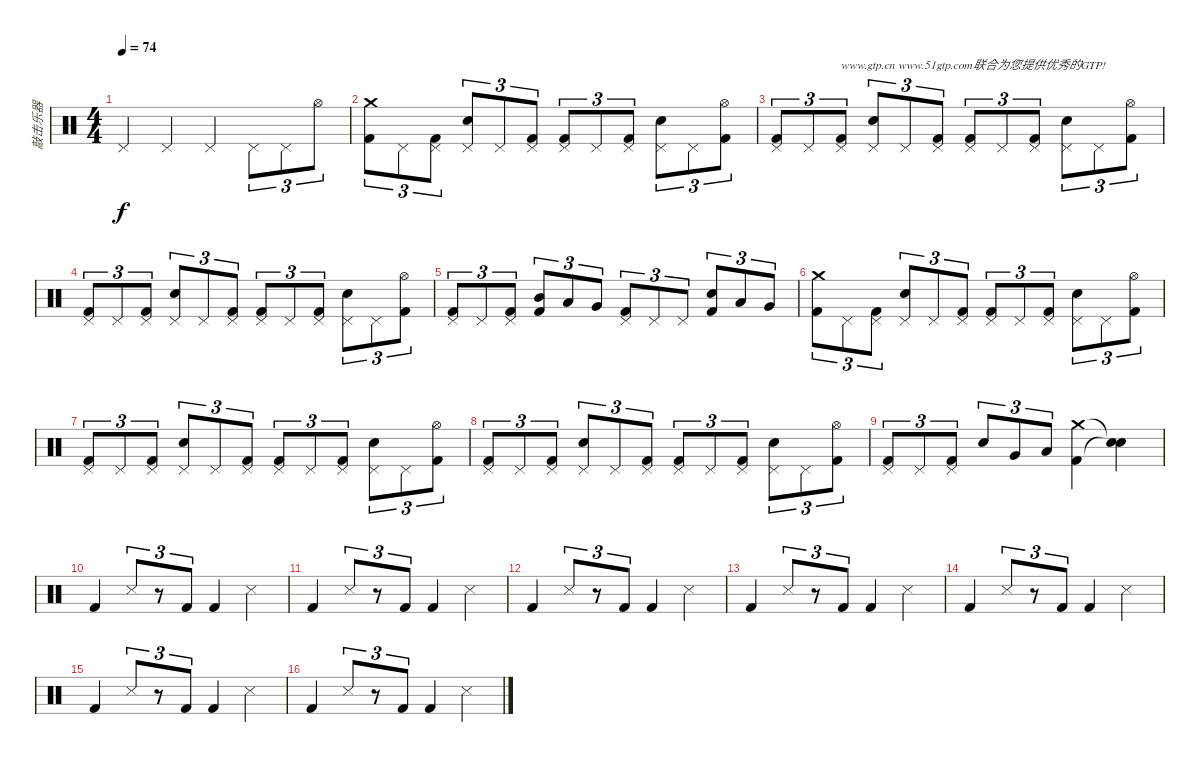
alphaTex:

\track ("敲击乐器" "敲击乐器") {instrument percussion}
\staff {score}
\articulation defaults
\ts (4 4)
\tempo 74
\clef neutral
\ks c "Pedal Hi-Hat (hit)".4{dy f} "Pedal Hi-Hat (hit)".4 "Pedal Hi-Hat (hit)".4 "Pedal Hi-Hat (hit)".8{tu (3 2)} "Pedal Hi-Hat (hit)".8{tu (3 2)} "Hi-Hat (open)".8{tu (3 2)}
|
("Crash medium (hit)" "Kick (hit) 2").8{tu (3 2)} "Pedal Hi-Hat (hit)".8{tu (3 2)} ("Pedal Hi-Hat (hit)" "Kick (hit) 2").8{tu (3 2)} ("Electric Snare (hit)" "Pedal Hi-Hat (hit)").8{tu (3 2)} "Pedal Hi-Hat (hit)".8{tu (3 2)} ("Pedal Hi-Hat (hit)" "Kick (hit) 2").8{tu (3 2)} ("Pedal Hi-Hat (hit)" "Kick (hit) 2").8{tu (3 2)} "Pedal Hi-Hat (hit)".8{tu (3 2)} ("Pedal Hi-Hat (hit)" "Kick (hit) 2").8{tu (3 2)} ("Electric Snare (hit)" "Pedal Hi-Hat (hit)").8{tu (3 2)} "Pedal Hi-Hat (hit)".8{tu (3 2)} ("Hi-Hat (open)" "Kick (hit) 2").8{tu (3 2)} |
("Pedal Hi-Hat (hit)" "Kick (hit) 2").8{tu (3 2)} "Pedal Hi-Hat (hit)".8{tu (3 2)} ("Pedal Hi-Hat (hit)" "Kick (hit) 2").8{tu (3 2) txt "www.gtp.cn www.51gtp.com联合为您提供优秀的GTP!"} ("Electric Snare (hit)" "Pedal Hi-Hat (hit)").8{tu (3 2)} "Pedal Hi-Hat (hit)".8{tu (3 2)} ("Pedal Hi-Hat (hit)" "Kick (hit) 2").8{tu (3 2)} ("Pedal Hi-Hat (hit)" "Kick (hit) 2").8{tu (3 2)} "Pedal Hi-Hat (hit)".8{tu (3 2)} ("Pedal Hi-Hat (hit)" "Kick (hit) 2").8{tu (3 2)} ("Electric Snare (hit)" "Pedal Hi-Hat (hit)").8{tu (3 2)} "Pedal Hi-Hat (hit)".8{tu (3 2)} ("Hi-Hat (open)" "Kick (hit) 2").8{tu (3 2)} |
("Pedal Hi-Hat (hit)" "Kick (hit) 2").8{tu (3 2)} "Pedal Hi-Hat (hit)".8{tu (3 2)} ("Pedal Hi-Hat (hit)" "Kick (hit) 2").8{tu (3 2)} ("Electric Snare (hit)" "Pedal Hi-Hat (hit)").8{tu (3 2)} "Pedal Hi-Hat (hit)".8{tu (3 2)} ("Pedal Hi-Hat (hit)" "Kick (hit) 2").8{tu (3 2)} ("Pedal Hi-Hat (hit)" "Kick (hit) 2").8{tu (3 2)} "Pedal Hi-Hat (hit)".8{tu (3 2)} ("Pedal Hi-Hat (hit)" "Kick (hit) 2").8{tu (3 2)} ("Electric Snare (hit)" "Pedal Hi-Hat (hit)").8{tu (3 2)} "Pedal Hi-Hat (hit)".8{tu (3 2)} ("Hi-Hat (open)" "Kick (hit) 2").8{tu (3 2)} |
("Pedal Hi-Hat (hit)" "Kick (hit) 2").8{tu (3 2)} "Pedal Hi-Hat (hit)".8{tu (3 2)} ("Pedal Hi-Hat (hit)" "Kick (hit) 2").8{tu (3 2)} ("Mid Tom (hit)" "Kick (hit) 2").8{tu (3 2)} "Low Tom (hit)".8{tu (3 2)} "Very Low Tom (hit)".8{tu (3 2)} ("Pedal Hi-Hat (hit)" "Kick (hit) 2").8{tu (3 2)} "Pedal Hi-Hat (hit)".8{tu (3 2)} "Pedal Hi-Hat (hit)".8{tu (3 2)} ("Electric Snare (hit)" "Kick (hit) 2").8{tu (3 2)} "Low Tom (hit)".8{tu (3 2)} "Very Low Tom (hit)".8{tu (3 2)} |
("Crash medium (hit)" "Kick (hit) 2").8{tu (3 2)} "Pedal Hi-Hat (hit)".8{tu (3 2)} ("Pedal Hi-Hat (hit)" "Kick (hit) 2").8{tu (3 2)} ("Electric Snare (hit)" "Pedal Hi-Hat (hit)").8{tu (3 2)} "Pedal Hi-Hat (hit)".8{tu (3 2)} ("Pedal Hi-Hat (hit)" "Kick (hit) 2").8{tu (3 2)} ("Pedal Hi-Hat (hit)" "Kick (hit) 2").8{tu (3 2)} "Pedal Hi-Hat (hit)".8{tu (3 2)} ("Pedal Hi-Hat (hit)" "Kick (hit) 2").8{tu (3 2)} ("Electric Snare (hit)" "Pedal Hi-Hat (hit)").8{tu (3 2)} "Pedal Hi-Hat (hit)".8{tu (3 2)} ("Hi-Hat (open)" "Kick (hit) 2").8{tu (3 2)} |
("Pedal Hi-Hat (hit)" "Kick (hit) 2").8{tu (3 2)} "Pedal Hi-Hat (hit)".8{tu (3 2)} ("Pedal Hi-Hat (hit)" "Kick (hit) 2").8{tu (3 2)} ("Electric Snare (hit)" "Pedal Hi-Hat (hit)").8{tu (3 2)} "Pedal Hi-Hat (hit)".8{tu (3 2)} ("Pedal Hi-Hat (hit)" "Kick (hit) 2").8{tu (3 2)} ("Pedal Hi-Hat (hit)" "Kick (hit) 2").8{tu (3 2)} "Pedal Hi-Hat (hit)".8{tu (3 2)} ("Pedal Hi-Hat (hit)" "Kick (hit) 2").8{tu (3 2)} ("Electric Snare (hit)" "Pedal Hi-Hat (hit)").8{tu (3 2)} "Pedal Hi-Hat (hit)".8{tu (3 2)} ("Hi-Hat (open)" "Kick (hit) 2").8{tu (3 2)} |
("Pedal Hi-Hat (hit)" "Kick (hit) 2").8{tu (3 2)} "Pedal Hi-Hat (hit)".8{tu (3 2)} ("Pedal Hi-Hat (hit)" "Kick (hit) 2").8{tu (3 2)} ("Electric Snare (hit)" "Pedal Hi-Hat (hit)").8{tu (3 2)} "Pedal Hi-Hat (hit)".8{tu (3 2)} ("Pedal Hi-Hat (hit)" "Kick (hit) 2").8{tu (3 2)} ("Pedal Hi-Hat (hit)" "Kick (hit) 2").8{tu (3 2)} "Pedal Hi-Hat (hit)".8{tu (3 2)} ("Pedal Hi-Hat (hit)" "Kick (hit) 2").8{tu (3 2)} ("Electric Snare (hit)" "Pedal Hi-Hat (hit)").8{tu (3 2)} "Pedal Hi-Hat (hit)".8{tu (3 2)} ("Hi-Hat (open)" "Kick (hit) 2").8{tu (3 2)} |
("Pedal Hi-Hat (hit)" "Kick (hit) 2").8{tu (3 2)} "Pedal Hi-Hat (hit)".8{tu (3 2)} ("Pedal Hi-Hat (hit)" "Kick (hit) 2").8{tu (3 2)} "Electric Snare (hit)".8{tu (3 2)} "Very Low Tom (hit)".8{tu (3 2)} "Low Tom (hit)".8{tu (3 2)} ("Crash medium (hit)" "Kick (hit) 2").4 ("Snare (hit)"{t} "Snare (hit)"{t}).4 |
"Kick (hit) 2".4 "Snare (side stick) 3".8{tu (3 2)} r.8{tu (3 2)} "Kick (hit) 2".8{tu (3 2)} "Kick (hit) 2".4 "Snare (side stick) 3".4 |
"Kick (hit) 2".4 "Snare (side stick) 3".8{tu (3 2)} r.8{tu (3 2)} "Kick (hit) 2".8{tu (3 2)} "Kick (hit) 2".4 "Snare (side stick) 3".4 |
"Kick (hit) 2".4 "Snare (side stick) 3".8{tu (3 2)} r.8{tu (3 2)} "Kick (hit) 2".8{tu (3 2)} "Kick (hit) 2".4 "Snare (side stick) 3".4 |
"Kick (hit) 2".4 "Snare (side stick) 3".8{tu (3 2)} r.8{tu (3 2)} "Kick (hit) 2".8{tu (3 2)} "Kick (hit) 2".4 "Snare (side stick) 3".4 |
"Kick (hit) 2".4 "Snare (side stick) 3".8{tu (3 2)} r.8{tu (3 2)} "Kick (hit) 2".8{tu (3 2)} "Kick (hit) 2".4 "Snare (side stick) 3".4 |
"Kick (hit) 2".4 "Snare (side stick) 3".8{tu (3 2)} r.8{tu (3 2)} "Kick (hit) 2".8{tu (3 2)} "Kick (hit) 2".4 "Snare (side stick) 3".4 |
"Kick (hit) 2".4 "Snare (side stick) 3".8{tu (3 2)} r.8{tu (3 2)} "Kick (hit) 2".8{tu (3 2)} "Kick (hit) 2".4 "Snare (side stick) 3".4
